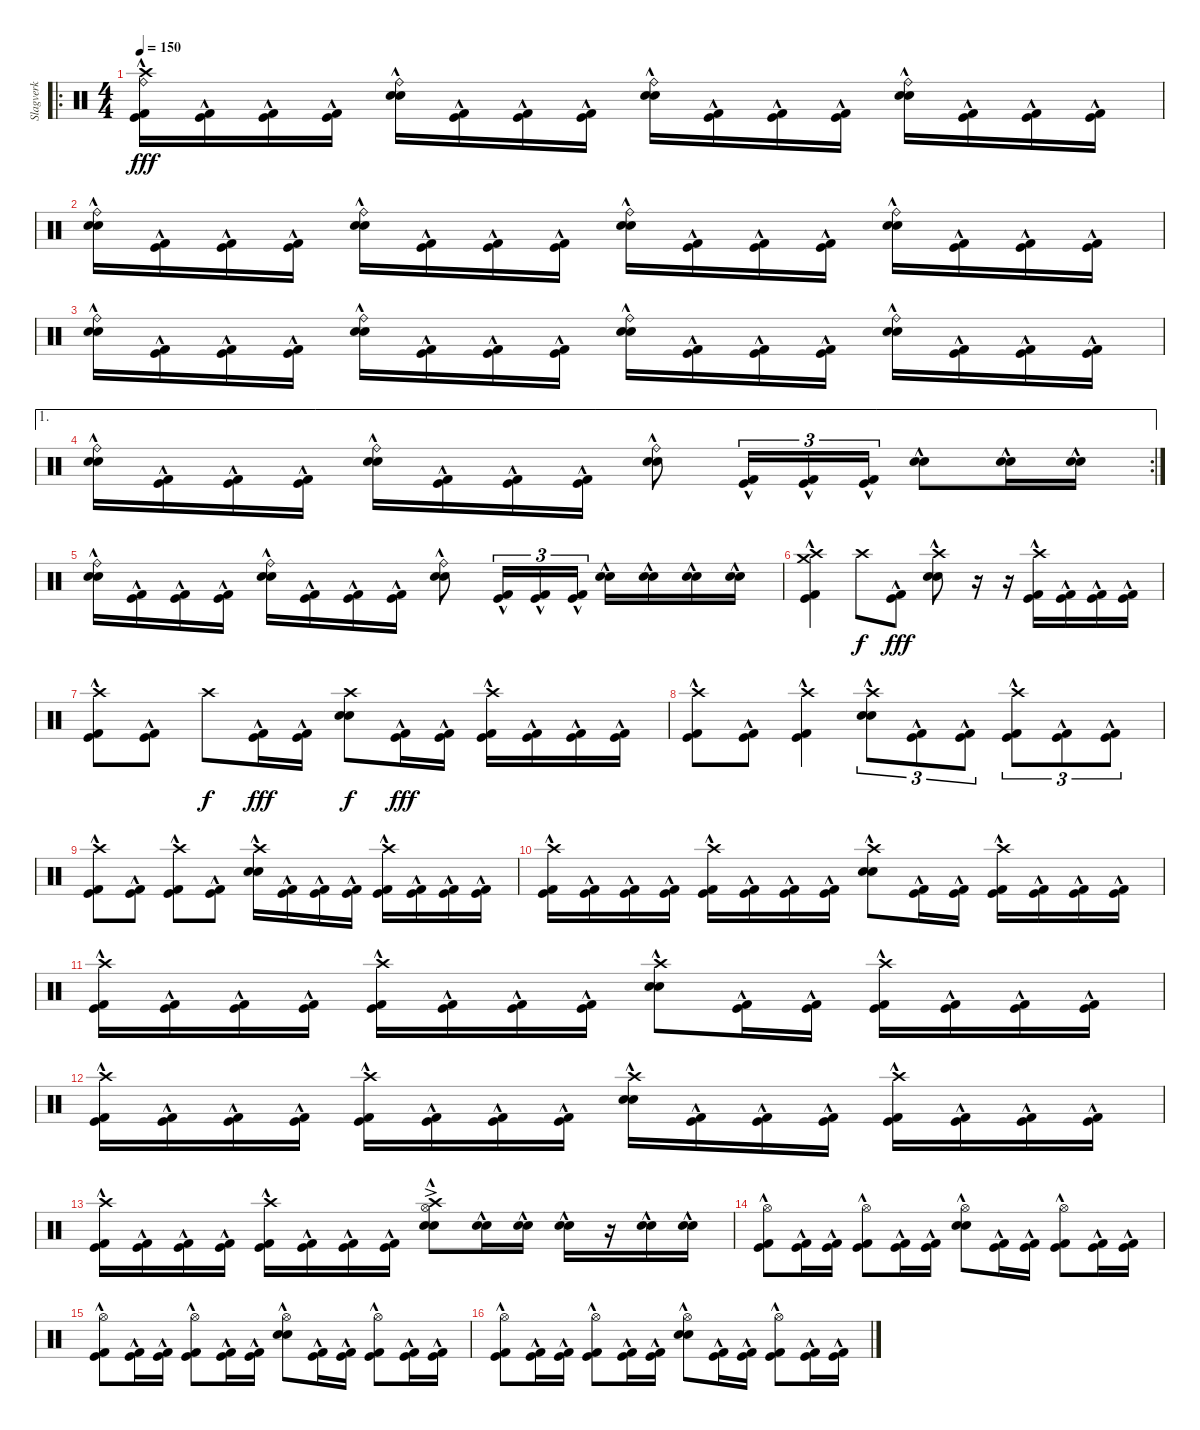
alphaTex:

\track ("Slagverk" "Slagverk") {instrument percussion}
\staff {score}
\articulation defaults
\ro
\ts (4 4)
\tempo 150
\clef neutral
\ks c
("Ride (bell)" "Crash high (hit)" "Kick (hit)"{hac} "Kick (hit) 2"{hac}).16{dy fff} ("Kick (hit)"{hac} "Kick (hit) 2"{hac}).16 ("Kick (hit)"{hac} "Kick (hit) 2"{hac}).16 ("Kick (hit)"{hac} "Kick (hit) 2"{hac}).16 ("Ride (bell)" "Electric Snare (hit)"{hac} "Snare (hit) 2").16 ("Kick (hit)"{hac} "Kick (hit) 2"{hac}).16 ("Kick (hit)"{hac} "Kick (hit) 2"{hac}).16 ("Kick (hit)"{hac} "Kick (hit) 2"{hac}).16 ("Ride (bell)" "Electric Snare (hit)"{hac} "Snare (hit) 2").16 ("Kick (hit)"{hac} "Kick (hit) 2"{hac}).16 ("Kick (hit)"{hac} "Kick (hit) 2"{hac}).16 ("Kick (hit)"{hac} "Kick (hit) 2"{hac}).16 ("Ride (bell)" "Electric Snare (hit)"{hac} "Snare (hit) 2").16 ("Kick (hit)"{hac} "Kick (hit) 2"{hac}).16 ("Kick (hit)"{hac} "Kick (hit) 2"{hac}).16 ("Kick (hit)"{hac} "Kick (hit) 2"{hac}).16 |
("Ride (bell)" "Electric Snare (hit)"{hac} "Snare (hit) 2").16 ("Kick (hit)"{hac} "Kick (hit) 2"{hac}).16 ("Kick (hit)"{hac} "Kick (hit) 2"{hac}).16 ("Kick (hit)"{hac} "Kick (hit) 2"{hac}).16 ("Ride (bell)" "Electric Snare (hit)"{hac} "Snare (hit) 2").16 ("Kick (hit)"{hac} "Kick (hit) 2"{hac}).16 ("Kick (hit)"{hac} "Kick (hit) 2"{hac}).16 ("Kick (hit)"{hac} "Kick (hit) 2"{hac}).16 ("Ride (bell)" "Electric Snare (hit)"{hac} "Snare (hit) 2").16 ("Kick (hit)"{hac} "Kick (hit) 2"{hac}).16 ("Kick (hit)"{hac} "Kick (hit) 2"{hac}).16 ("Kick (hit)"{hac} "Kick (hit) 2"{hac}).16 ("Ride (bell)" "Electric Snare (hit)"{hac} "Snare (hit) 2").16 ("Kick (hit)"{hac} "Kick (hit) 2"{hac}).16 ("Kick (hit)"{hac} "Kick (hit) 2"{hac}).16 ("Kick (hit)"{hac} "Kick (hit) 2"{hac}).16 |
("Ride (bell)" "Electric Snare (hit)"{hac} "Snare (hit) 2").16 ("Kick (hit)"{hac} "Kick (hit) 2"{hac}).16 ("Kick (hit)"{hac} "Kick (hit) 2"{hac}).16 ("Kick (hit)"{hac} "Kick (hit) 2"{hac}).16 ("Ride (bell)" "Electric Snare (hit)"{hac} "Snare (hit) 2").16 ("Kick (hit)"{hac} "Kick (hit) 2"{hac}).16 ("Kick (hit)"{hac} "Kick (hit) 2"{hac}).16 ("Kick (hit)"{hac} "Kick (hit) 2"{hac}).16 ("Ride (bell)" "Electric Snare (hit)"{hac} "Snare (hit) 2").16 ("Kick (hit)"{hac} "Kick (hit) 2"{hac}).16 ("Kick (hit)"{hac} "Kick (hit) 2"{hac}).16 ("Kick (hit)"{hac} "Kick (hit) 2"{hac}).16 ("Ride (bell)" "Electric Snare (hit)"{hac} "Snare (hit) 2").16 ("Kick (hit)"{hac} "Kick (hit) 2"{hac}).16 ("Kick (hit)"{hac} "Kick (hit) 2"{hac}).16 ("Kick (hit)"{hac} "Kick (hit) 2"{hac}).16 |
\ae 1
\rc 2
("Ride (bell)" "Electric Snare (hit)"{hac} "Snare (hit) 2").16 ("Kick (hit)"{hac} "Kick (hit) 2"{hac}).16 ("Kick (hit)"{hac} "Kick (hit) 2"{hac}).16 ("Kick (hit)"{hac} "Kick (hit) 2"{hac}).16 ("Ride (bell)" "Electric Snare (hit)"{hac} "Snare (hit) 2").16 ("Kick (hit)"{hac} "Kick (hit) 2"{hac}).16 ("Kick (hit)"{hac} "Kick (hit) 2"{hac}).16 ("Kick (hit)"{hac} "Kick (hit) 2"{hac}).16 ("Ride (bell)" "Electric Snare (hit)"{hac} "Snare (hit) 2").8 ("Kick (hit)"{hac} "Kick (hit) 2"{hac}).16{tu (3 2)} ("Kick (hit)"{hac} "Kick (hit) 2"{hac}).16{tu (3 2)} ("Kick (hit)"{hac} "Kick (hit) 2"{hac}).16{tu (3 2)} ("Electric Snare (hit)"{hac} "Snare (hit) 2").8 ("Electric Snare (hit)"{hac} "Snare (hit) 2").16 ("Electric Snare (hit)"{hac} "Snare (hit) 2").16 |
("Ride (bell)" "Electric Snare (hit)"{hac} "Snare (hit) 2").16 ("Kick (hit)"{hac} "Kick (hit) 2"{hac}).16 ("Kick (hit)"{hac} "Kick (hit) 2"{hac}).16 ("Kick (hit)"{hac} "Kick (hit) 2"{hac}).16 ("Ride (bell)" "Electric Snare (hit)"{hac} "Snare (hit) 2").16 ("Kick (hit)"{hac} "Kick (hit) 2"{hac}).16 ("Kick (hit)"{hac} "Kick (hit) 2"{hac}).16 ("Kick (hit)"{hac} "Kick (hit) 2"{hac}).16 ("Ride (bell)" "Electric Snare (hit)"{hac} "Snare (hit) 2").8 ("Kick (hit)"{hac} "Kick (hit) 2"{hac}).16{tu (3 2)} ("Kick (hit)"{hac} "Kick (hit) 2"{hac}).16{tu (3 2)} ("Kick (hit)"{hac} "Kick (hit) 2"{hac}).16{tu (3 2)} ("Electric Snare (hit)"{hac} "Snare (hit) 2").16 ("Electric Snare (hit)"{hac} "Snare (hit) 2").16 ("Electric Snare (hit)"{hac} "Snare (hit) 2").16 ("Electric Snare (hit)"{hac} "Snare (hit) 2").16 |
("Crash high (hit)" "Crash medium (hit)" "Kick (hit)"{hac} "Kick (hit) 2"{hac}).4 "Crash high (hit)".8{dy f} ("Kick (hit)"{hac} "Kick (hit) 2"{hac}).8{dy fff} ("Crash high (hit)" "Electric Snare (hit)"{hac} "Snare (hit) 2").8 r.16 r.16 ("Crash high (hit)" "Kick (hit)"{hac} "Kick (hit) 2"{hac}).16 ("Kick (hit)"{hac} "Kick (hit) 2"{hac}).16 ("Kick (hit)"{hac} "Kick (hit) 2"{hac}).16 ("Kick (hit)"{hac} "Kick (hit) 2"{hac}).16 |
("Crash high (hit)" "Kick (hit)"{hac} "Kick (hit) 2"{hac}).8 ("Kick (hit)"{hac} "Kick (hit) 2"{hac}).8 "Crash high (hit)".8{dy f} ("Kick (hit)"{hac} "Kick (hit) 2"{hac}).16{dy fff} ("Kick (hit)"{hac} "Kick (hit) 2"{hac}).16 ("Crash high (hit)" "Electric Snare (hit)" "Snare (hit) 2").8{dy f} ("Kick (hit)"{hac} "Kick (hit) 2"{hac}).16{dy fff} ("Kick (hit)"{hac} "Kick (hit) 2"{hac}).16 ("Crash high (hit)" "Kick (hit)"{hac} "Kick (hit) 2"{hac}).16 ("Kick (hit)"{hac} "Kick (hit) 2"{hac}).16 ("Kick (hit)"{hac} "Kick (hit) 2"{hac}).16 ("Kick (hit)"{hac} "Kick (hit) 2"{hac}).16 |
("Crash high (hit)" "Kick (hit)"{hac} "Kick (hit) 2"{hac}).8 ("Kick (hit)"{hac} "Kick (hit) 2"{hac}).8 ("Crash high (hit)" "Kick (hit)"{hac} "Kick (hit) 2"{hac}).4 ("Crash high (hit)" "Electric Snare (hit)"{hac} "Snare (hit) 2").8{tu (3 2)} ("Kick (hit)"{hac} "Kick (hit) 2"{hac}).8{tu (3 2)} ("Kick (hit)"{hac} "Kick (hit) 2"{hac}).8{tu (3 2)} ("Crash high (hit)" "Kick (hit)"{hac} "Kick (hit) 2"{hac}).8{tu (3 2)} ("Kick (hit)"{hac} "Kick (hit) 2"{hac}).8{tu (3 2)} ("Kick (hit)"{hac} "Kick (hit) 2"{hac}).8{tu (3 2)} |
("Crash high (hit)" "Kick (hit)"{hac} "Kick (hit) 2"{hac}).8 ("Kick (hit)"{hac} "Kick (hit) 2"{hac}).8 ("Crash high (hit)" "Kick (hit)"{hac} "Kick (hit) 2"{hac}).8 ("Kick (hit)"{hac} "Kick (hit) 2"{hac}).8 ("Crash high (hit)" "Electric Snare (hit)"{hac} "Snare (hit) 2").16 ("Kick (hit)"{hac} "Kick (hit) 2"{hac}).16 ("Kick (hit)"{hac} "Kick (hit) 2"{hac}).16 ("Kick (hit)"{hac} "Kick (hit) 2"{hac}).16 ("Crash high (hit)" "Kick (hit)"{hac} "Kick (hit) 2"{hac}).16 ("Kick (hit)"{hac} "Kick (hit) 2"{hac}).16 ("Kick (hit)"{hac} "Kick (hit) 2"{hac}).16 ("Kick (hit)"{hac} "Kick (hit) 2"{hac}).16 |
("Crash high (hit)" "Kick (hit)"{hac} "Kick (hit) 2"{hac}).16 ("Kick (hit)"{hac} "Kick (hit) 2"{hac}).16 ("Kick (hit)"{hac} "Kick (hit) 2"{hac}).16 ("Kick (hit)"{hac} "Kick (hit) 2"{hac}).16 ("Crash high (hit)" "Kick (hit)"{hac} "Kick (hit) 2"{hac}).16 ("Kick (hit)"{hac} "Kick (hit) 2"{hac}).16 ("Kick (hit)"{hac} "Kick (hit) 2"{hac}).16 ("Kick (hit)"{hac} "Kick (hit) 2"{hac}).16 ("Crash high (hit)" "Electric Snare (hit)"{hac} "Snare (hit) 2").8 ("Kick (hit)"{hac} "Kick (hit) 2"{hac}).16 ("Kick (hit)"{hac} "Kick (hit) 2"{hac}).16 ("Crash high (hit)" "Kick (hit)"{hac} "Kick (hit) 2"{hac}).16 ("Kick (hit)"{hac} "Kick (hit) 2"{hac}).16 ("Kick (hit)"{hac} "Kick (hit) 2"{hac}).16 ("Kick (hit)"{hac} "Kick (hit) 2"{hac}).16 |
("Crash high (hit)" "Kick (hit)"{hac} "Kick (hit) 2"{hac}).16 ("Kick (hit)"{hac} "Kick (hit) 2"{hac}).16 ("Kick (hit)"{hac} "Kick (hit) 2"{hac}).16 ("Kick (hit)"{hac} "Kick (hit) 2"{hac}).16 ("Crash high (hit)" "Kick (hit)"{hac} "Kick (hit) 2"{hac}).16 ("Kick (hit)"{hac} "Kick (hit) 2"{hac}).16 ("Kick (hit)"{hac} "Kick (hit) 2"{hac}).16 ("Kick (hit)"{hac} "Kick (hit) 2"{hac}).16 ("Crash high (hit)" "Electric Snare (hit)"{hac} "Snare (hit) 2").8 ("Kick (hit)"{hac} "Kick (hit) 2"{hac}).16 ("Kick (hit)"{hac} "Kick (hit) 2"{hac}).16 ("Crash high (hit)" "Kick (hit)"{hac} "Kick (hit) 2"{hac}).16 ("Kick (hit)"{hac} "Kick (hit) 2"{hac}).16 ("Kick (hit)"{hac} "Kick (hit) 2"{hac}).16 ("Kick (hit)"{hac} "Kick (hit) 2"{hac}).16 |
("Crash high (hit)" "Kick (hit)"{hac} "Kick (hit) 2"{hac}).16 ("Kick (hit)"{hac} "Kick (hit) 2"{hac}).16 ("Kick (hit)"{hac} "Kick (hit) 2"{hac}).16 ("Kick (hit)"{hac} "Kick (hit) 2"{hac}).16 ("Crash high (hit)" "Kick (hit)"{hac} "Kick (hit) 2"{hac}).16 ("Kick (hit)"{hac} "Kick (hit) 2"{hac}).16 ("Kick (hit)"{hac} "Kick (hit) 2"{hac}).16 ("Kick (hit)"{hac} "Kick (hit) 2"{hac}).16 ("Crash high (hit)" "Electric Snare (hit)"{hac} "Snare (hit) 2").16 ("Kick (hit)"{hac} "Kick (hit) 2"{hac}).16 ("Kick (hit)"{hac} "Kick (hit) 2"{hac}).16 ("Kick (hit)"{hac} "Kick (hit) 2"{hac}).16 ("Crash high (hit)" "Kick (hit)"{hac} "Kick (hit) 2"{hac}).16 ("Kick (hit)"{hac} "Kick (hit) 2"{hac}).16 ("Kick (hit)"{hac} "Kick (hit) 2"{hac}).16 ("Kick (hit)"{hac} "Kick (hit) 2"{hac}).16 |
("Crash high (hit)" "Kick (hit)"{hac} "Kick (hit) 2"{hac}).16 ("Kick (hit)"{hac} "Kick (hit) 2"{hac}).16 ("Kick (hit)"{hac} "Kick (hit) 2"{hac}).16 ("Kick (hit)"{hac} "Kick (hit) 2"{hac}).16 ("Crash high (hit)" "Kick (hit)"{hac} "Kick (hit) 2"{hac}).16 ("Kick (hit)"{hac} "Kick (hit) 2"{hac}).16 ("Kick (hit)"{hac} "Kick (hit) 2"{hac}).16 ("Kick (hit)"{hac} "Kick (hit) 2"{hac}).16 ("Crash high (hit)" "Hi-Hat (open)"{ac} "Electric Snare (hit)"{hac} "Snare (hit) 2").8 ("Electric Snare (hit)"{hac} "Snare (hit) 2").16 ("Electric Snare (hit)"{hac} "Snare (hit) 2").16 ("Electric Snare (hit)"{hac} "Snare (hit) 2").16 r.16 ("Electric Snare (hit)"{hac} "Snare (hit) 2").16 ("Electric Snare (hit)"{hac} "Snare (hit) 2").16 |
("Hi-Hat (open)" "Kick (hit)"{hac} "Kick (hit) 2"{hac}).8 ("Kick (hit)"{hac} "Kick (hit) 2"{hac}).16 ("Kick (hit)"{hac} "Kick (hit) 2"{hac}).16 ("Hi-Hat (open)" "Kick (hit)"{hac} "Kick (hit) 2"{hac}).8 ("Kick (hit)"{hac} "Kick (hit) 2"{hac}).16 ("Kick (hit)"{hac} "Kick (hit) 2"{hac}).16 ("Hi-Hat (open)" "Electric Snare (hit)"{hac} "Snare (hit) 2").8 ("Kick (hit)"{hac} "Kick (hit) 2"{hac}).16 ("Kick (hit)"{hac} "Kick (hit) 2"{hac}).16 ("Hi-Hat (open)" "Kick (hit)"{hac} "Kick (hit) 2"{hac}).8 ("Kick (hit)"{hac} "Kick (hit) 2"{hac}).16 ("Kick (hit)"{hac} "Kick (hit) 2"{hac}).16 |
("Hi-Hat (open)" "Kick (hit)"{hac} "Kick (hit) 2"{hac}).8 ("Kick (hit)"{hac} "Kick (hit) 2"{hac}).16 ("Kick (hit)"{hac} "Kick (hit) 2"{hac}).16 ("Hi-Hat (open)" "Kick (hit)"{hac} "Kick (hit) 2"{hac}).8 ("Kick (hit)"{hac} "Kick (hit) 2"{hac}).16 ("Kick (hit)"{hac} "Kick (hit) 2"{hac}).16 ("Hi-Hat (open)" "Electric Snare (hit)"{hac} "Snare (hit) 2").8 ("Kick (hit)"{hac} "Kick (hit) 2"{hac}).16 ("Kick (hit)"{hac} "Kick (hit) 2"{hac}).16 ("Hi-Hat (open)" "Kick (hit)"{hac} "Kick (hit) 2"{hac}).8 ("Kick (hit)"{hac} "Kick (hit) 2"{hac}).16 ("Kick (hit)"{hac} "Kick (hit) 2"{hac}).16 |
("Hi-Hat (open)" "Kick (hit)"{hac} "Kick (hit) 2"{hac}).8 ("Kick (hit)"{hac} "Kick (hit) 2"{hac}).16 ("Kick (hit)"{hac} "Kick (hit) 2"{hac}).16 ("Hi-Hat (open)" "Kick (hit)"{hac} "Kick (hit) 2"{hac}).8 ("Kick (hit)"{hac} "Kick (hit) 2"{hac}).16 ("Kick (hit)"{hac} "Kick (hit) 2"{hac}).16 ("Hi-Hat (open)" "Electric Snare (hit)"{hac} "Snare (hit) 2").8 ("Kick (hit)"{hac} "Kick (hit) 2"{hac}).16 ("Kick (hit)"{hac} "Kick (hit) 2"{hac}).16 ("Hi-Hat (open)" "Kick (hit)"{hac} "Kick (hit) 2"{hac}).8 ("Kick (hit)"{hac} "Kick (hit) 2"{hac}).16 ("Kick (hit)"{hac} "Kick (hit) 2"{hac}).16
